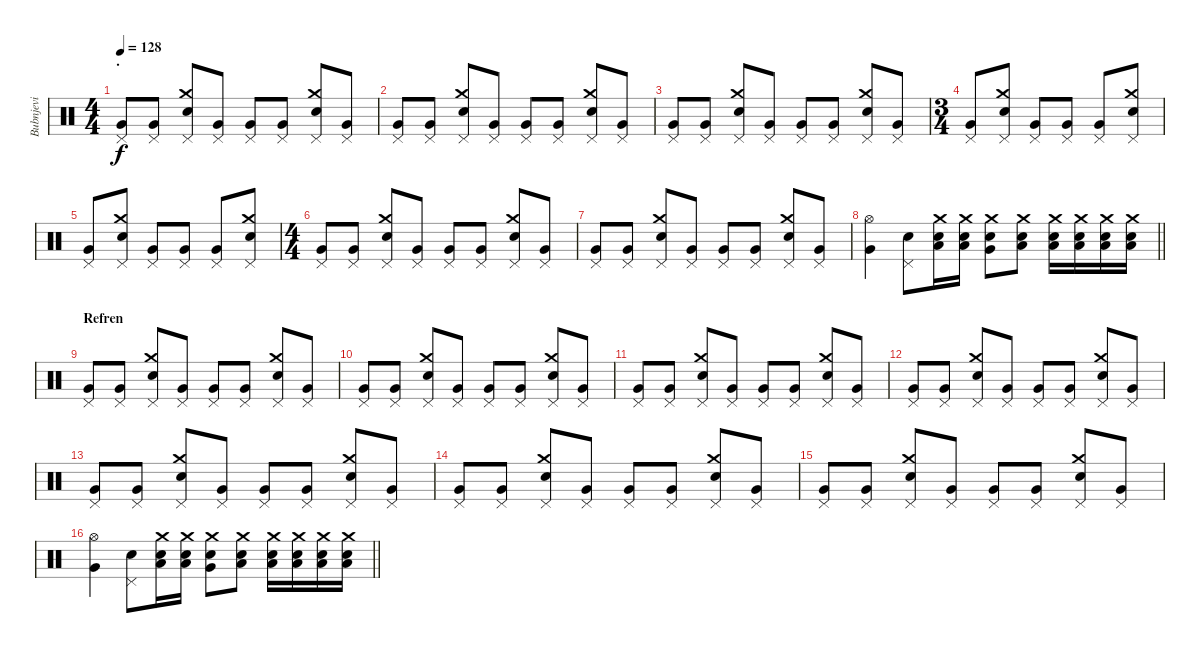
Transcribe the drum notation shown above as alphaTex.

\track ("Bubnjevi" "Bubnjevi") {instrument percussion}
\staff {score}
\articulation defaults
\ts (4 4)
\section ("" ".")
\tempo 128
\clef neutral
\ks c
("Pedal Hi-Hat (hit)" "Very Low Tom (hit)").8{dy f} ("Pedal Hi-Hat (hit)" "Very Low Tom (hit)").8 ("Crash medium (hit)" "Pedal Hi-Hat (hit)" "Electric Snare (hit)").8 ("Pedal Hi-Hat (hit)" "Very Low Tom (hit)").8 ("Pedal Hi-Hat (hit)" "Very Low Tom (hit)").8 ("Pedal Hi-Hat (hit)" "Very Low Tom (hit)").8 ("Crash medium (hit)" "Pedal Hi-Hat (hit)" "Electric Snare (hit)").8 ("Pedal Hi-Hat (hit)" "Very Low Tom (hit)").8 |
("Pedal Hi-Hat (hit)" "Very Low Tom (hit)").8 ("Pedal Hi-Hat (hit)" "Very Low Tom (hit)").8 ("Crash medium (hit)" "Pedal Hi-Hat (hit)" "Electric Snare (hit)").8 ("Pedal Hi-Hat (hit)" "Very Low Tom (hit)").8 ("Pedal Hi-Hat (hit)" "Very Low Tom (hit)").8 ("Pedal Hi-Hat (hit)" "Very Low Tom (hit)").8 ("Crash medium (hit)" "Pedal Hi-Hat (hit)" "Electric Snare (hit)").8 ("Pedal Hi-Hat (hit)" "Very Low Tom (hit)").8 |
("Pedal Hi-Hat (hit)" "Very Low Tom (hit)").8 ("Pedal Hi-Hat (hit)" "Very Low Tom (hit)").8 ("Crash medium (hit)" "Pedal Hi-Hat (hit)" "Electric Snare (hit)").8 ("Pedal Hi-Hat (hit)" "Very Low Tom (hit)").8 ("Pedal Hi-Hat (hit)" "Very Low Tom (hit)").8 ("Pedal Hi-Hat (hit)" "Very Low Tom (hit)").8 ("Crash medium (hit)" "Pedal Hi-Hat (hit)" "Electric Snare (hit)").8 ("Pedal Hi-Hat (hit)" "Very Low Tom (hit)").8 |
\ts (3 4)
("Pedal Hi-Hat (hit)" "Very Low Tom (hit)").8 ("Crash medium (hit)" "Pedal Hi-Hat (hit)" "Electric Snare (hit)").8 ("Pedal Hi-Hat (hit)" "Very Low Tom (hit)").8 ("Pedal Hi-Hat (hit)" "Very Low Tom (hit)").8 ("Pedal Hi-Hat (hit)" "Very Low Tom (hit)").8 ("Crash medium (hit)" "Pedal Hi-Hat (hit)" "Electric Snare (hit)").8 |
("Pedal Hi-Hat (hit)" "Very Low Tom (hit)").8 ("Crash medium (hit)" "Pedal Hi-Hat (hit)" "Electric Snare (hit)").8 ("Pedal Hi-Hat (hit)" "Very Low Tom (hit)").8 ("Pedal Hi-Hat (hit)" "Very Low Tom (hit)").8 ("Pedal Hi-Hat (hit)" "Very Low Tom (hit)").8 ("Crash medium (hit)" "Pedal Hi-Hat (hit)" "Electric Snare (hit)").8 |
\ts (4 4)
("Pedal Hi-Hat (hit)" "Very Low Tom (hit)").8 ("Pedal Hi-Hat (hit)" "Very Low Tom (hit)").8 ("Crash medium (hit)" "Pedal Hi-Hat (hit)" "Electric Snare (hit)").8 ("Pedal Hi-Hat (hit)" "Very Low Tom (hit)").8 ("Pedal Hi-Hat (hit)" "Very Low Tom (hit)").8 ("Pedal Hi-Hat (hit)" "Very Low Tom (hit)").8 ("Crash medium (hit)" "Pedal Hi-Hat (hit)" "Electric Snare (hit)").8 ("Pedal Hi-Hat (hit)" "Very Low Tom (hit)").8 |
("Pedal Hi-Hat (hit)" "Very Low Tom (hit)").8 ("Pedal Hi-Hat (hit)" "Very Low Tom (hit)").8 ("Crash medium (hit)" "Pedal Hi-Hat (hit)" "Electric Snare (hit)").8 ("Pedal Hi-Hat (hit)" "Very Low Tom (hit)").8 ("Pedal Hi-Hat (hit)" "Very Low Tom (hit)").8 ("Pedal Hi-Hat (hit)" "Very Low Tom (hit)").8 ("Crash medium (hit)" "Pedal Hi-Hat (hit)" "Electric Snare (hit)").8 ("Pedal Hi-Hat (hit)" "Very Low Tom (hit)").8 |
\barLineRight lightlight
("Hi-Hat (open)" "Very Low Tom (hit)").4 ("Pedal Hi-Hat (hit)" "Electric Snare (hit)").8 ("Crash medium (hit)" "Electric Snare (hit)" "Low Tom (hit)").16 ("Crash medium (hit)" "Electric Snare (hit)" "Low Tom (hit)").16 ("Crash medium (hit)" "Electric Snare (hit)" "Very Low Tom (hit)").8 ("Crash medium (hit)" "Electric Snare (hit)" "Low Tom (hit)").8 ("Crash medium (hit)" "Electric Snare (hit)" "Low Tom (hit)").16 ("Crash medium (hit)" "Electric Snare (hit)" "Low Tom (hit)").16 ("Crash medium (hit)" "Electric Snare (hit)" "Low Tom (hit)").16 ("Crash medium (hit)" "Electric Snare (hit)" "Low Tom (hit)").16 |
\section ("" "Refren")
("Pedal Hi-Hat (hit)" "Very Low Tom (hit)").8 ("Pedal Hi-Hat (hit)" "Very Low Tom (hit)").8 ("Crash medium (hit)" "Pedal Hi-Hat (hit)" "Electric Snare (hit)").8 ("Pedal Hi-Hat (hit)" "Very Low Tom (hit)").8 ("Pedal Hi-Hat (hit)" "Very Low Tom (hit)").8 ("Pedal Hi-Hat (hit)" "Very Low Tom (hit)").8 ("Crash medium (hit)" "Pedal Hi-Hat (hit)" "Electric Snare (hit)").8 ("Pedal Hi-Hat (hit)" "Very Low Tom (hit)").8 |
("Pedal Hi-Hat (hit)" "Very Low Tom (hit)").8 ("Pedal Hi-Hat (hit)" "Very Low Tom (hit)").8 ("Crash medium (hit)" "Pedal Hi-Hat (hit)" "Electric Snare (hit)").8 ("Pedal Hi-Hat (hit)" "Very Low Tom (hit)").8 ("Pedal Hi-Hat (hit)" "Very Low Tom (hit)").8 ("Pedal Hi-Hat (hit)" "Very Low Tom (hit)").8 ("Crash medium (hit)" "Pedal Hi-Hat (hit)" "Electric Snare (hit)").8 ("Pedal Hi-Hat (hit)" "Very Low Tom (hit)").8 |
("Pedal Hi-Hat (hit)" "Very Low Tom (hit)").8 ("Pedal Hi-Hat (hit)" "Very Low Tom (hit)").8 ("Crash medium (hit)" "Pedal Hi-Hat (hit)" "Electric Snare (hit)").8 ("Pedal Hi-Hat (hit)" "Very Low Tom (hit)").8 ("Pedal Hi-Hat (hit)" "Very Low Tom (hit)").8 ("Pedal Hi-Hat (hit)" "Very Low Tom (hit)").8 ("Crash medium (hit)" "Pedal Hi-Hat (hit)" "Electric Snare (hit)").8 ("Pedal Hi-Hat (hit)" "Very Low Tom (hit)").8 |
("Pedal Hi-Hat (hit)" "Very Low Tom (hit)").8 ("Pedal Hi-Hat (hit)" "Very Low Tom (hit)").8 ("Crash medium (hit)" "Pedal Hi-Hat (hit)" "Electric Snare (hit)").8 ("Pedal Hi-Hat (hit)" "Very Low Tom (hit)").8 ("Pedal Hi-Hat (hit)" "Very Low Tom (hit)").8 ("Pedal Hi-Hat (hit)" "Very Low Tom (hit)").8 ("Crash medium (hit)" "Pedal Hi-Hat (hit)" "Electric Snare (hit)").8 ("Pedal Hi-Hat (hit)" "Very Low Tom (hit)").8 |
("Pedal Hi-Hat (hit)" "Very Low Tom (hit)").8 ("Pedal Hi-Hat (hit)" "Very Low Tom (hit)").8 ("Crash medium (hit)" "Pedal Hi-Hat (hit)" "Electric Snare (hit)").8 ("Pedal Hi-Hat (hit)" "Very Low Tom (hit)").8 ("Pedal Hi-Hat (hit)" "Very Low Tom (hit)").8 ("Pedal Hi-Hat (hit)" "Very Low Tom (hit)").8 ("Crash medium (hit)" "Pedal Hi-Hat (hit)" "Electric Snare (hit)").8 ("Pedal Hi-Hat (hit)" "Very Low Tom (hit)").8 |
("Pedal Hi-Hat (hit)" "Very Low Tom (hit)").8 ("Pedal Hi-Hat (hit)" "Very Low Tom (hit)").8 ("Crash medium (hit)" "Pedal Hi-Hat (hit)" "Electric Snare (hit)").8 ("Pedal Hi-Hat (hit)" "Very Low Tom (hit)").8 ("Pedal Hi-Hat (hit)" "Very Low Tom (hit)").8 ("Pedal Hi-Hat (hit)" "Very Low Tom (hit)").8 ("Crash medium (hit)" "Pedal Hi-Hat (hit)" "Electric Snare (hit)").8 ("Pedal Hi-Hat (hit)" "Very Low Tom (hit)").8 |
("Pedal Hi-Hat (hit)" "Very Low Tom (hit)").8 ("Pedal Hi-Hat (hit)" "Very Low Tom (hit)").8 ("Crash medium (hit)" "Pedal Hi-Hat (hit)" "Electric Snare (hit)").8 ("Pedal Hi-Hat (hit)" "Very Low Tom (hit)").8 ("Pedal Hi-Hat (hit)" "Very Low Tom (hit)").8 ("Pedal Hi-Hat (hit)" "Very Low Tom (hit)").8 ("Crash medium (hit)" "Pedal Hi-Hat (hit)" "Electric Snare (hit)").8 ("Pedal Hi-Hat (hit)" "Very Low Tom (hit)").8 |
\barLineRight lightlight
("Hi-Hat (open)" "Very Low Tom (hit)").4 ("Pedal Hi-Hat (hit)" "Electric Snare (hit)").8 ("Crash medium (hit)" "Electric Snare (hit)" "Low Tom (hit)").16 ("Crash medium (hit)" "Electric Snare (hit)" "Low Tom (hit)").16 ("Crash medium (hit)" "Electric Snare (hit)" "Very Low Tom (hit)").8 ("Crash medium (hit)" "Electric Snare (hit)" "Low Tom (hit)").8 ("Crash medium (hit)" "Electric Snare (hit)" "Low Tom (hit)").16 ("Crash medium (hit)" "Electric Snare (hit)" "Low Tom (hit)").16 ("Crash medium (hit)" "Electric Snare (hit)" "Low Tom (hit)").16 ("Crash medium (hit)" "Electric Snare (hit)" "Low Tom (hit)").16
